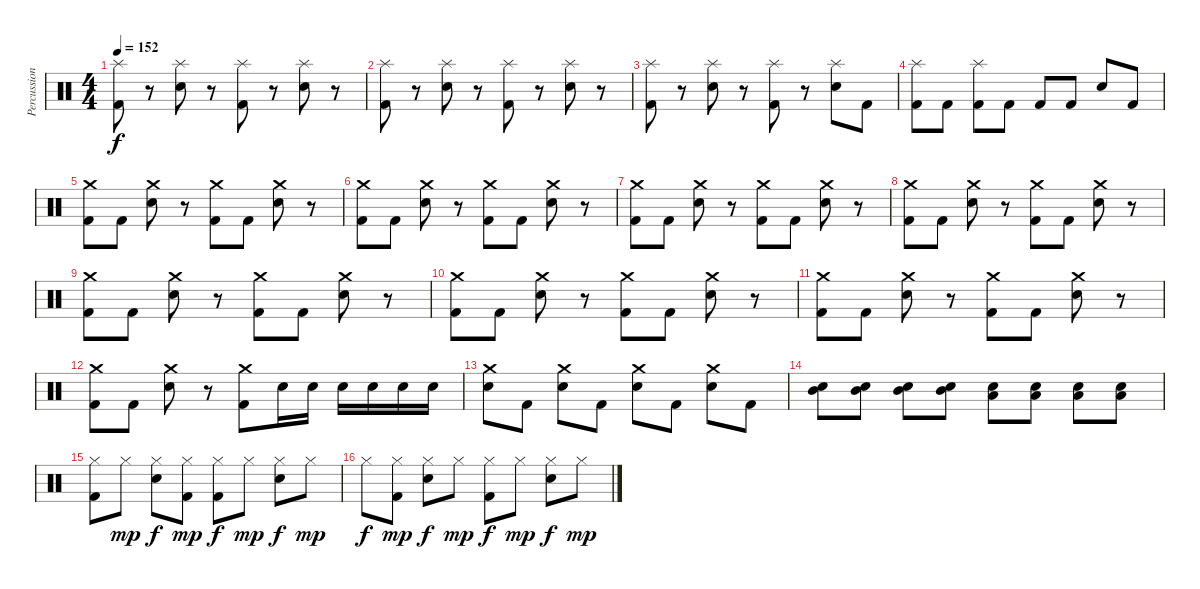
\track ("Percussions" "Percussion") {instrument percussion}
\staff {score}
\articulation defaults
\ts (4 4)
\tempo 152
\clef neutral
\ks c
("Splash (hit)" "Kick (hit) 2").8{dy f} r.8 ("Splash (hit)" "Electric Snare (hit)").8 r.8 ("Splash (hit)" "Kick (hit) 2").8 r.8 ("Splash (hit)" "Electric Snare (hit)").8 r.8 |
("Splash (hit)" "Kick (hit) 2").8 r.8 ("Splash (hit)" "Electric Snare (hit)").8 r.8 ("Splash (hit)" "Kick (hit) 2").8 r.8 ("Splash (hit)" "Electric Snare (hit)").8 r.8 |
("Splash (hit)" "Kick (hit) 2").8 r.8 ("Splash (hit)" "Electric Snare (hit)").8 r.8 ("Splash (hit)" "Kick (hit) 2").8 r.8 ("Splash (hit)" "Electric Snare (hit)").8 "Kick (hit) 2".8 |
("Splash (hit)" "Kick (hit) 2").8 "Kick (hit) 2".8 ("Splash (hit)" "Kick (hit) 2").8 "Kick (hit) 2".8 "Kick (hit) 2".8 "Kick (hit) 2".8 "Electric Snare (hit)".8 "Kick (hit) 2".8 |
("Crash medium (hit)" "Kick (hit) 2").8 "Kick (hit) 2".8 ("Crash medium (hit)" "Electric Snare (hit)").8 r.8 ("Crash medium (hit)" "Kick (hit) 2").8 "Kick (hit) 2".8 ("Crash medium (hit)" "Electric Snare (hit)").8 r.8 |
("Crash medium (hit)" "Kick (hit) 2").8 "Kick (hit) 2".8 ("Crash medium (hit)" "Electric Snare (hit)").8 r.8 ("Crash medium (hit)" "Kick (hit) 2").8 "Kick (hit) 2".8 ("Crash medium (hit)" "Electric Snare (hit)").8 r.8 |
("Crash medium (hit)" "Kick (hit) 2").8 "Kick (hit) 2".8 ("Crash medium (hit)" "Electric Snare (hit)").8 r.8 ("Crash medium (hit)" "Kick (hit) 2").8 "Kick (hit) 2".8 ("Crash medium (hit)" "Electric Snare (hit)").8 r.8 |
("Crash medium (hit)" "Kick (hit) 2").8 "Kick (hit) 2".8 ("Crash medium (hit)" "Electric Snare (hit)").8 r.8 ("Crash medium (hit)" "Kick (hit) 2").8 "Kick (hit) 2".8 ("Crash medium (hit)" "Electric Snare (hit)").8 r.8 |
("Crash medium (hit)" "Kick (hit) 2").8 "Kick (hit) 2".8 ("Crash medium (hit)" "Electric Snare (hit)").8 r.8 ("Crash medium (hit)" "Kick (hit) 2").8 "Kick (hit) 2".8 ("Crash medium (hit)" "Electric Snare (hit)").8 r.8 |
("Crash medium (hit)" "Kick (hit) 2").8 "Kick (hit) 2".8 ("Crash medium (hit)" "Electric Snare (hit)").8 r.8 ("Crash medium (hit)" "Kick (hit) 2").8 "Kick (hit) 2".8 ("Crash medium (hit)" "Electric Snare (hit)").8 r.8 |
("Crash medium (hit)" "Kick (hit) 2").8 "Kick (hit) 2".8 ("Crash medium (hit)" "Electric Snare (hit)").8 r.8 ("Crash medium (hit)" "Kick (hit) 2").8 "Kick (hit) 2".8 ("Crash medium (hit)" "Electric Snare (hit)").8 r.8 |
("Crash medium (hit)" "Kick (hit) 2").8 "Kick (hit) 2".8 ("Crash medium (hit)" "Electric Snare (hit)").8 r.8 ("Crash medium (hit)" "Kick (hit) 2").8 "Electric Snare (hit)".16 "Electric Snare (hit)".16 "Electric Snare (hit)".16 "Electric Snare (hit)".16 "Electric Snare (hit)".16 "Electric Snare (hit)".16 |
("Crash medium (hit)" "Electric Snare (hit)").8 "Kick (hit) 2".8 ("Crash medium (hit)" "Electric Snare (hit)").8 "Kick (hit) 2".8 ("Crash medium (hit)" "Electric Snare (hit)").8 "Kick (hit) 2".8 ("Crash medium (hit)" "Electric Snare (hit)").8 "Kick (hit) 2".8 |
("Mid Tom (hit)" "Electric Snare (hit)").8 ("Mid Tom (hit)" "Electric Snare (hit)").8 ("Mid Tom (hit)" "Electric Snare (hit)").8 ("Mid Tom (hit)" "Electric Snare (hit)").8 ("Low Tom (hit)" "Electric Snare (hit)").8 ("Low Tom (hit)" "Electric Snare (hit)").8 ("Low Tom (hit)" "Electric Snare (hit)").8 ("Low Tom (hit)" "Electric Snare (hit)").8 |
("Hi-Hat (closed)" "Kick (hit) 2").8 "Hi-Hat (closed)".8{dy mp} ("Hi-Hat (closed)" "Electric Snare (hit)").8{dy f} ("Hi-Hat (closed)" "Kick (hit) 2").8{dy mp} ("Hi-Hat (closed)" "Kick (hit) 2").8{dy f} "Hi-Hat (closed)".8{dy mp} ("Hi-Hat (closed)" "Electric Snare (hit)").8{dy f} "Hi-Hat (closed)".8{dy mp} |
"Hi-Hat (closed)".8{dy f} ("Hi-Hat (closed)" "Kick (hit) 2").8{dy mp} ("Hi-Hat (closed)" "Electric Snare (hit)").8{dy f} "Hi-Hat (closed)".8{dy mp} ("Hi-Hat (closed)" "Kick (hit) 2").8{dy f} "Hi-Hat (closed)".8{dy mp} ("Hi-Hat (closed)" "Electric Snare (hit)").8{dy f} "Hi-Hat (closed)".8{dy mp}
